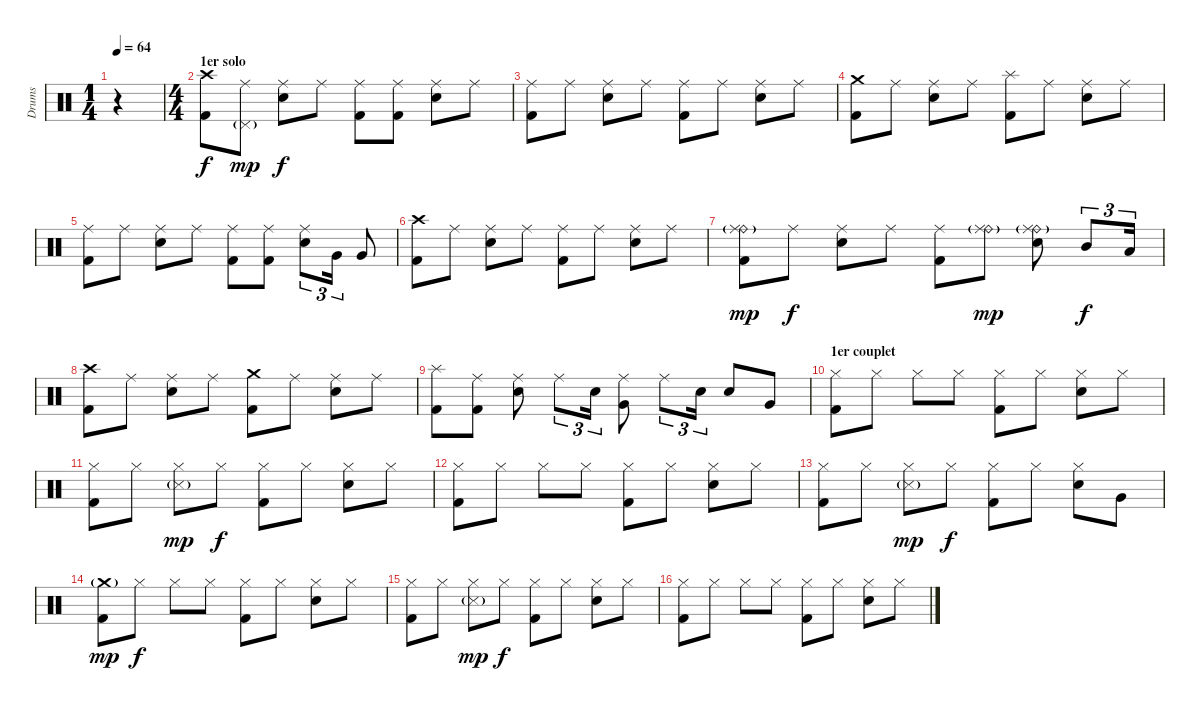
\track ("Drums" "Drums") {instrument percussion}
\staff {score}
\articulation defaults
\ts (1 4)
\tempo 64
\clef neutral
\ks c
r.4{dy f} |
\ts (4 4)
\section ("" "1er solo")
("Crash high (hit)" "Kick (hit) 2").8 ("Ride (middle)" "Pedal Hi-Hat (hit)"{g}).8{dy mp} ("Ride (middle)" "Electric Snare (hit)").8{dy f} "Ride (middle)".8 ("Ride (middle)" "Kick (hit) 2").8 ("Ride (middle)" "Kick (hit) 2").8 ("Ride (middle)" "Electric Snare (hit)").8 "Ride (middle)".8 |
("Ride (middle)" "Kick (hit) 2").8 "Ride (middle)".8 ("Ride (middle)" "Electric Snare (hit)").8 "Ride (middle)".8 ("Ride (middle)" "Kick (hit) 2").8 "Ride (middle)".8 ("Ride (middle)" "Electric Snare (hit)").8 "Ride (middle)".8 |
("Crash medium (hit)" "Kick (hit) 2").8 "Ride (middle)".8 ("Ride (middle)" "Electric Snare (hit)").8 "Ride (middle)".8 ("Splash (hit)" "Kick (hit) 2").8 "Ride (middle)".8 ("Ride (middle)" "Electric Snare (hit)").8 "Ride (middle)".8 |
("Ride (middle)" "Kick (hit) 2").8 "Ride (middle)".8 ("Ride (middle)" "Electric Snare (hit)").8 "Ride (middle)".8 ("Ride (middle)" "Kick (hit) 2").8 ("Ride (middle)" "Kick (hit) 2").8 ("Ride (middle)" "Electric Snare (hit)").8{tu (3 2)} "Very Low Tom (hit)".16{tu (3 2)} "Very Low Tom (hit)".8 |
("Crash high (hit)" "Kick (hit) 2").8 "Ride (middle)".8 ("Ride (middle)" "Electric Snare (hit)").8 "Ride (middle)".8 ("Ride (middle)" "Kick (hit) 2").8 "Ride (middle)".8 ("Ride (middle)" "Electric Snare (hit)").8 "Ride (middle)".8 |
("Ride (bell)"{g} "Ride (middle)" "Kick (hit) 2").8{dy mp} "Ride (middle)".8{dy f} ("Ride (middle)" "Electric Snare (hit)").8 "Ride (middle)".8 ("Ride (middle)" "Kick (hit) 2").8 ("Ride (bell)"{g} "Ride (middle)").8{dy mp} ("Ride (bell)"{g} "Ride (middle)" "Electric Snare (hit)").8 "Mid Tom (hit)".8{tu (3 2) dy f} "Low Tom (hit)".16{tu (3 2)} |
("Crash high (hit)" "Kick (hit) 2").8 "Ride (middle)".8 ("Ride (middle)" "Electric Snare (hit)").8 "Ride (middle)".8 ("Crash medium (hit)" "Kick (hit) 2").8 "Ride (middle)".8 ("Ride (middle)" "Electric Snare (hit)").8 "Ride (middle)".8 |
("Splash (hit)" "Kick (hit) 2").8 ("Ride (middle)" "Kick (hit) 2").8 ("Ride (middle)" "Electric Snare (hit)").8 "Ride (middle)".8{tu (3 2)} "Electric Snare (hit)".16{tu (3 2)} ("Ride (middle)" "Very Low Tom (hit)").8 "Ride (middle)".8{tu (3 2)} "Electric Snare (hit)".16{tu (3 2)} "Electric Snare (hit)".8 "Very Low Tom (hit)".8 |
\section ("" "1er couplet")
("Hi-Hat (closed)" "Kick (hit) 2").8 "Hi-Hat (closed)".8 "Hi-Hat (closed)".8 "Hi-Hat (closed)".8 ("Hi-Hat (closed)" "Kick (hit) 2").8 "Hi-Hat (closed)".8 ("Hi-Hat (closed)" "Electric Snare (hit)").8 "Hi-Hat (closed)".8 |
("Hi-Hat (closed)" "Kick (hit) 2").8 "Hi-Hat (closed)".8 ("Hi-Hat (closed)" "Snare (side stick) 3"{g}).8{dy mp} "Hi-Hat (closed)".8{dy f} ("Hi-Hat (closed)" "Kick (hit) 2").8 "Hi-Hat (closed)".8 ("Hi-Hat (closed)" "Electric Snare (hit)").8 "Hi-Hat (closed)".8 |
("Hi-Hat (closed)" "Kick (hit) 2").8 "Hi-Hat (closed)".8 "Hi-Hat (closed)".8 "Hi-Hat (closed)".8 ("Hi-Hat (closed)" "Kick (hit) 2").8 "Hi-Hat (closed)".8 ("Hi-Hat (closed)" "Electric Snare (hit)").8 "Hi-Hat (closed)".8 |
("Hi-Hat (closed)" "Kick (hit) 2").8 "Hi-Hat (closed)".8 ("Hi-Hat (closed)" "Snare (side stick) 3"{g}).8{dy mp} "Hi-Hat (closed)".8{dy f} ("Hi-Hat (closed)" "Kick (hit) 2").8 "Hi-Hat (closed)".8 ("Hi-Hat (closed)" "Electric Snare (hit)").8 "Very Low Tom (hit)".8 |
("Crash medium (hit)"{g} "Kick (hit) 2").8{dy mp} "Hi-Hat (closed)".8{dy f} "Hi-Hat (closed)".8 "Hi-Hat (closed)".8 ("Hi-Hat (closed)" "Kick (hit) 2").8 "Hi-Hat (closed)".8 ("Hi-Hat (closed)" "Electric Snare (hit)").8 "Hi-Hat (closed)".8 |
("Hi-Hat (closed)" "Kick (hit) 2").8 "Hi-Hat (closed)".8 ("Hi-Hat (closed)" "Snare (side stick) 3"{g}).8{dy mp} "Hi-Hat (closed)".8{dy f} ("Hi-Hat (closed)" "Kick (hit) 2").8 "Hi-Hat (closed)".8 ("Hi-Hat (closed)" "Electric Snare (hit)").8 "Hi-Hat (closed)".8 |
("Hi-Hat (closed)" "Kick (hit) 2").8 "Hi-Hat (closed)".8 "Hi-Hat (closed)".8 "Hi-Hat (closed)".8 ("Hi-Hat (closed)" "Kick (hit) 2").8 "Hi-Hat (closed)".8 ("Hi-Hat (closed)" "Electric Snare (hit)").8 "Hi-Hat (closed)".8
